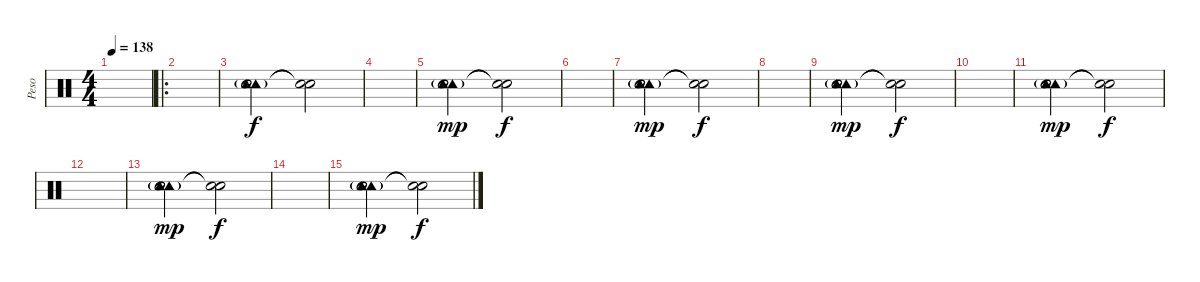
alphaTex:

\track ("Peso" "Peso") {instrument percussion}
\staff {score}
\articulation defaults
\ts (4 4)
\tempo 138
\clef neutral
\ks c
|
\ro
|
("Tambourine (hit)"{g} "Tambourine (hit)"{g} "Electric Snare (hit)"{g} "Electric Snare (hit)"{g}).2 ("Snare (hit)"{t} "Snare (hit)"{t}).2{dy f} |
|
("Tambourine (hit)"{g} "Tambourine (hit)"{g} "Electric Snare (hit)"{g} "Electric Snare (hit)"{g}).2{dy mp} ("Snare (hit)"{t} "Snare (hit)"{t}).2{dy f} |
|
("Tambourine (hit)"{g} "Tambourine (hit)"{g} "Electric Snare (hit)"{g} "Electric Snare (hit)"{g}).2{dy mp} ("Snare (hit)"{t} "Snare (hit)"{t}).2{dy f} |
|
("Tambourine (hit)"{g} "Tambourine (hit)"{g} "Electric Snare (hit)"{g} "Electric Snare (hit)"{g}).2{dy mp} ("Snare (hit)"{t} "Snare (hit)"{t}).2{dy f} |
|
("Tambourine (hit)"{g} "Tambourine (hit)"{g} "Electric Snare (hit)"{g} "Electric Snare (hit)"{g}).2{dy mp} ("Snare (hit)"{t} "Snare (hit)"{t}).2{dy f} |
|
("Tambourine (hit)"{g} "Tambourine (hit)"{g} "Electric Snare (hit)"{g} "Electric Snare (hit)"{g}).2{dy mp} ("Snare (hit)"{t} "Snare (hit)"{t}).2{dy f} |
|
("Tambourine (hit)"{g} "Tambourine (hit)"{g} "Electric Snare (hit)"{g} "Electric Snare (hit)"{g}).2{dy mp} ("Snare (hit)"{t} "Snare (hit)"{t}).2{dy f}
